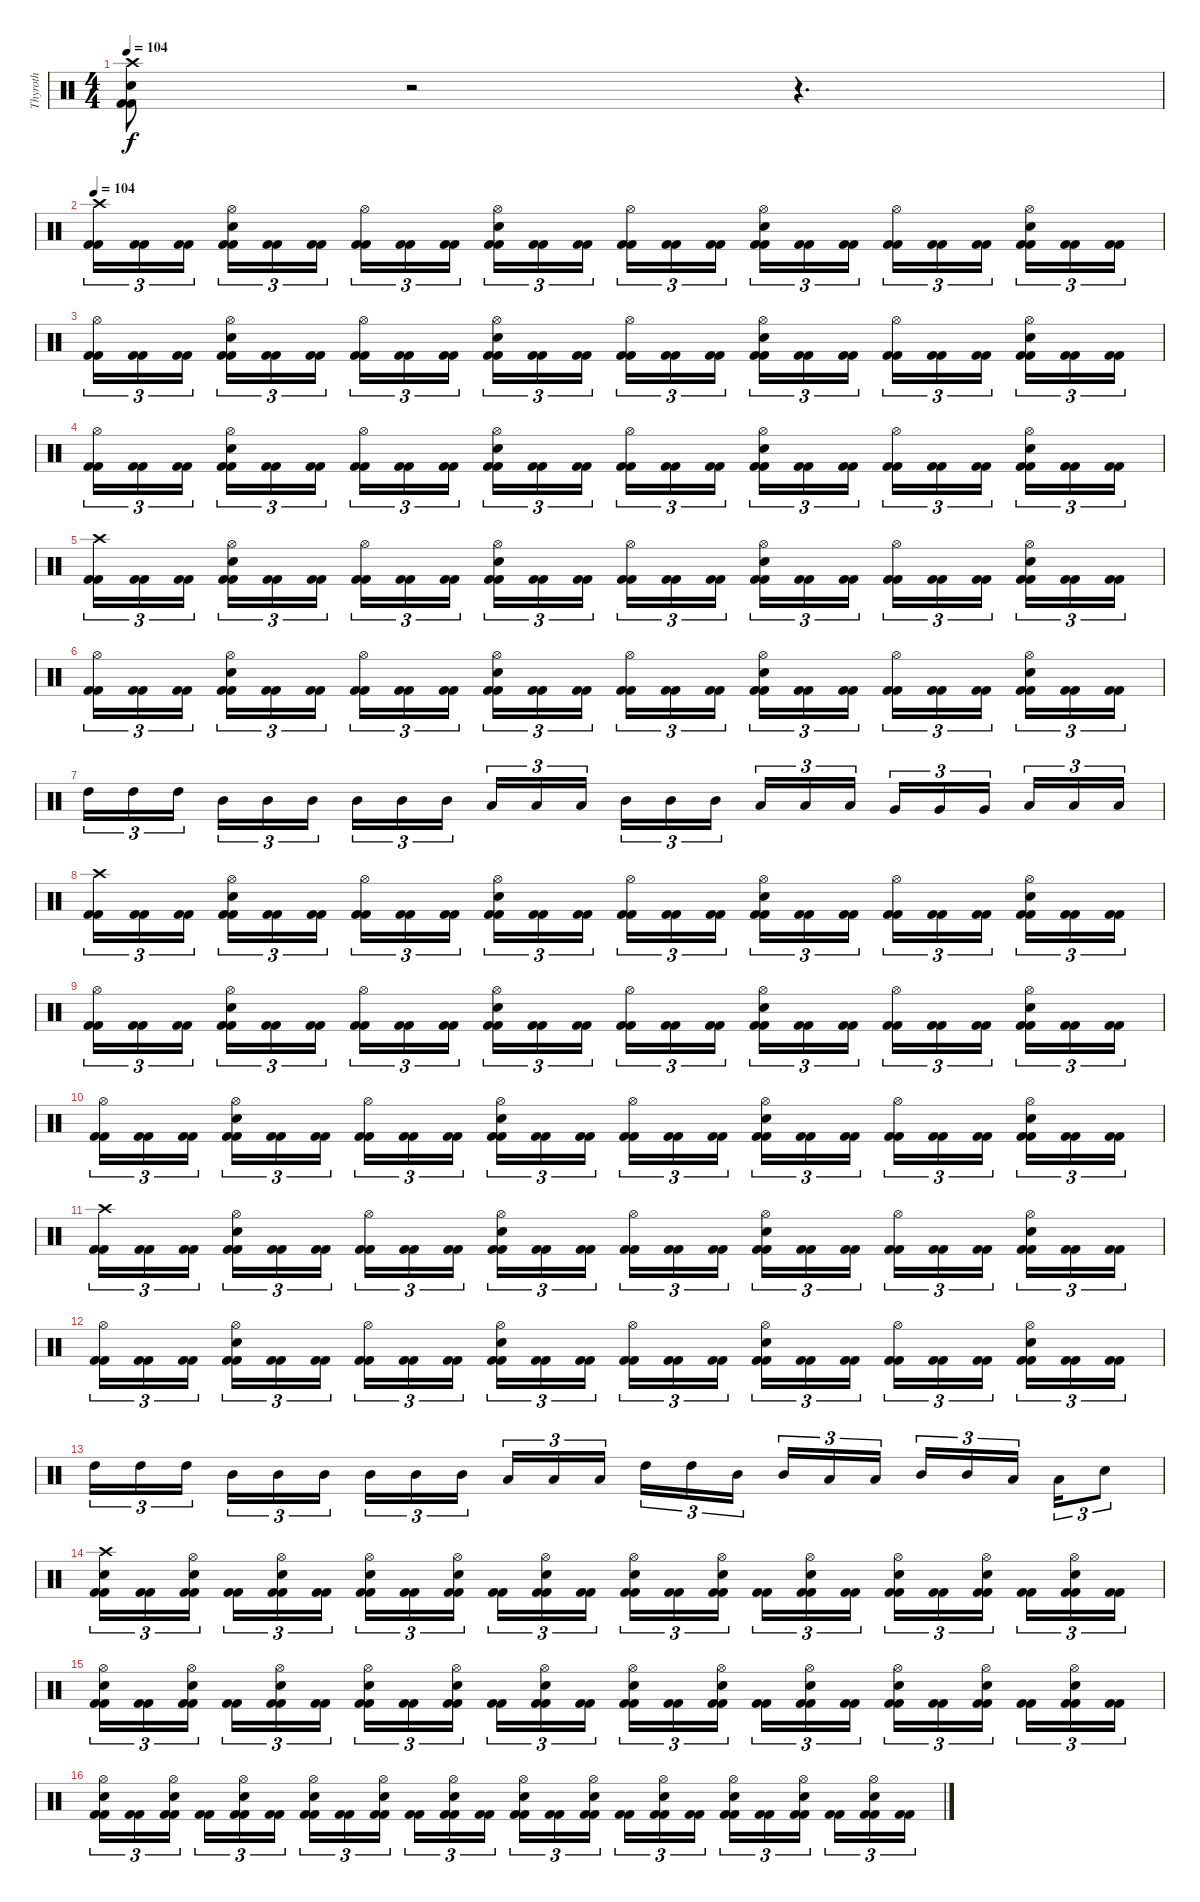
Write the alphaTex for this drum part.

\track ("Thyroth" "Thyroth") {instrument percussion}
\staff {score}
\articulation defaults
\ts (4 4)
\tempo 104
\clef neutral
\ks c
("Kick (hit) 2" "Kick (hit) 2" "Snare (hit) 2" "Crash high (hit)").8{dy f} r.2 r.4{d} |
\tempo 104
("Kick (hit) 2" "Kick (hit) 2" "Crash high (hit)").16{tu (3 2)} ("Kick (hit) 2" "Kick (hit) 2").16{tu (3 2)} ("Kick (hit) 2" "Kick (hit) 2").16{tu (3 2)} ("Kick (hit) 2" "Kick (hit) 2" "Snare (hit) 2" "Hi-Hat (open)").16{tu (3 2)} ("Kick (hit) 2" "Kick (hit) 2").16{tu (3 2)} ("Kick (hit) 2" "Kick (hit) 2").16{tu (3 2)} ("Kick (hit) 2" "Kick (hit) 2" "Hi-Hat (open)").16{tu (3 2)} ("Kick (hit) 2" "Kick (hit) 2").16{tu (3 2)} ("Kick (hit) 2" "Kick (hit) 2").16{tu (3 2)} ("Kick (hit) 2" "Kick (hit) 2" "Snare (hit) 2" "Hi-Hat (open)").16{tu (3 2)} ("Kick (hit) 2" "Kick (hit) 2").16{tu (3 2)} ("Kick (hit) 2" "Kick (hit) 2").16{tu (3 2)} ("Kick (hit) 2" "Kick (hit) 2" "Hi-Hat (open)").16{tu (3 2)} ("Kick (hit) 2" "Kick (hit) 2").16{tu (3 2)} ("Kick (hit) 2" "Kick (hit) 2").16{tu (3 2)} ("Kick (hit) 2" "Kick (hit) 2" "Snare (hit) 2" "Hi-Hat (open)").16{tu (3 2)} ("Kick (hit) 2" "Kick (hit) 2").16{tu (3 2)} ("Kick (hit) 2" "Kick (hit) 2").16{tu (3 2)} ("Kick (hit) 2" "Kick (hit) 2" "Hi-Hat (open)").16{tu (3 2)} ("Kick (hit) 2" "Kick (hit) 2").16{tu (3 2)} ("Kick (hit) 2" "Kick (hit) 2").16{tu (3 2)} ("Kick (hit) 2" "Kick (hit) 2" "Snare (hit) 2" "Hi-Hat (open)").16{tu (3 2)} ("Kick (hit) 2" "Kick (hit) 2").16{tu (3 2)} ("Kick (hit) 2" "Kick (hit) 2").16{tu (3 2)} |
("Kick (hit) 2" "Kick (hit) 2" "Hi-Hat (open)").16{tu (3 2)} ("Kick (hit) 2" "Kick (hit) 2").16{tu (3 2)} ("Kick (hit) 2" "Kick (hit) 2").16{tu (3 2)} ("Kick (hit) 2" "Kick (hit) 2" "Snare (hit) 2" "Hi-Hat (open)").16{tu (3 2)} ("Kick (hit) 2" "Kick (hit) 2").16{tu (3 2)} ("Kick (hit) 2" "Kick (hit) 2").16{tu (3 2)} ("Kick (hit) 2" "Kick (hit) 2" "Hi-Hat (open)").16{tu (3 2)} ("Kick (hit) 2" "Kick (hit) 2").16{tu (3 2)} ("Kick (hit) 2" "Kick (hit) 2").16{tu (3 2)} ("Kick (hit) 2" "Kick (hit) 2" "Snare (hit) 2" "Hi-Hat (open)").16{tu (3 2)} ("Kick (hit) 2" "Kick (hit) 2").16{tu (3 2)} ("Kick (hit) 2" "Kick (hit) 2").16{tu (3 2)} ("Kick (hit) 2" "Kick (hit) 2" "Hi-Hat (open)").16{tu (3 2)} ("Kick (hit) 2" "Kick (hit) 2").16{tu (3 2)} ("Kick (hit) 2" "Kick (hit) 2").16{tu (3 2)} ("Kick (hit) 2" "Kick (hit) 2" "Snare (hit) 2" "Hi-Hat (open)").16{tu (3 2)} ("Kick (hit) 2" "Kick (hit) 2").16{tu (3 2)} ("Kick (hit) 2" "Kick (hit) 2").16{tu (3 2)} ("Kick (hit) 2" "Kick (hit) 2" "Hi-Hat (open)").16{tu (3 2)} ("Kick (hit) 2" "Kick (hit) 2").16{tu (3 2)} ("Kick (hit) 2" "Kick (hit) 2").16{tu (3 2)} ("Kick (hit) 2" "Kick (hit) 2" "Snare (hit) 2" "Hi-Hat (open)").16{tu (3 2)} ("Kick (hit) 2" "Kick (hit) 2").16{tu (3 2)} ("Kick (hit) 2" "Kick (hit) 2").16{tu (3 2)} |
("Kick (hit) 2" "Kick (hit) 2" "Hi-Hat (open)").16{tu (3 2)} ("Kick (hit) 2" "Kick (hit) 2").16{tu (3 2)} ("Kick (hit) 2" "Kick (hit) 2").16{tu (3 2)} ("Kick (hit) 2" "Kick (hit) 2" "Snare (hit) 2" "Hi-Hat (open)").16{tu (3 2)} ("Kick (hit) 2" "Kick (hit) 2").16{tu (3 2)} ("Kick (hit) 2" "Kick (hit) 2").16{tu (3 2)} ("Kick (hit) 2" "Kick (hit) 2" "Hi-Hat (open)").16{tu (3 2)} ("Kick (hit) 2" "Kick (hit) 2").16{tu (3 2)} ("Kick (hit) 2" "Kick (hit) 2").16{tu (3 2)} ("Kick (hit) 2" "Kick (hit) 2" "Snare (hit) 2" "Hi-Hat (open)").16{tu (3 2)} ("Kick (hit) 2" "Kick (hit) 2").16{tu (3 2)} ("Kick (hit) 2" "Kick (hit) 2").16{tu (3 2)} ("Kick (hit) 2" "Kick (hit) 2" "Hi-Hat (open)").16{tu (3 2)} ("Kick (hit) 2" "Kick (hit) 2").16{tu (3 2)} ("Kick (hit) 2" "Kick (hit) 2").16{tu (3 2)} ("Kick (hit) 2" "Kick (hit) 2" "Snare (hit) 2" "Hi-Hat (open)").16{tu (3 2)} ("Kick (hit) 2" "Kick (hit) 2").16{tu (3 2)} ("Kick (hit) 2" "Kick (hit) 2").16{tu (3 2)} ("Kick (hit) 2" "Kick (hit) 2" "Hi-Hat (open)").16{tu (3 2)} ("Kick (hit) 2" "Kick (hit) 2").16{tu (3 2)} ("Kick (hit) 2" "Kick (hit) 2").16{tu (3 2)} ("Kick (hit) 2" "Kick (hit) 2" "Snare (hit) 2" "Hi-Hat (open)").16{tu (3 2)} ("Kick (hit) 2" "Kick (hit) 2").16{tu (3 2)} ("Kick (hit) 2" "Kick (hit) 2").16{tu (3 2)} |
("Kick (hit) 2" "Kick (hit) 2" "Crash high (hit)").16{tu (3 2)} ("Kick (hit) 2" "Kick (hit) 2").16{tu (3 2)} ("Kick (hit) 2" "Kick (hit) 2").16{tu (3 2)} ("Kick (hit) 2" "Kick (hit) 2" "Snare (hit) 2" "Hi-Hat (open)").16{tu (3 2)} ("Kick (hit) 2" "Kick (hit) 2").16{tu (3 2)} ("Kick (hit) 2" "Kick (hit) 2").16{tu (3 2)} ("Kick (hit) 2" "Kick (hit) 2" "Hi-Hat (open)").16{tu (3 2)} ("Kick (hit) 2" "Kick (hit) 2").16{tu (3 2)} ("Kick (hit) 2" "Kick (hit) 2").16{tu (3 2)} ("Kick (hit) 2" "Kick (hit) 2" "Snare (hit) 2" "Hi-Hat (open)").16{tu (3 2)} ("Kick (hit) 2" "Kick (hit) 2").16{tu (3 2)} ("Kick (hit) 2" "Kick (hit) 2").16{tu (3 2)} ("Kick (hit) 2" "Kick (hit) 2" "Hi-Hat (open)").16{tu (3 2)} ("Kick (hit) 2" "Kick (hit) 2").16{tu (3 2)} ("Kick (hit) 2" "Kick (hit) 2").16{tu (3 2)} ("Kick (hit) 2" "Kick (hit) 2" "Snare (hit) 2" "Hi-Hat (open)").16{tu (3 2)} ("Kick (hit) 2" "Kick (hit) 2").16{tu (3 2)} ("Kick (hit) 2" "Kick (hit) 2").16{tu (3 2)} ("Kick (hit) 2" "Kick (hit) 2" "Hi-Hat (open)").16{tu (3 2)} ("Kick (hit) 2" "Kick (hit) 2").16{tu (3 2)} ("Kick (hit) 2" "Kick (hit) 2").16{tu (3 2)} ("Kick (hit) 2" "Kick (hit) 2" "Snare (hit) 2" "Hi-Hat (open)").16{tu (3 2)} ("Kick (hit) 2" "Kick (hit) 2").16{tu (3 2)} ("Kick (hit) 2" "Kick (hit) 2").16{tu (3 2)} |
("Kick (hit) 2" "Kick (hit) 2" "Hi-Hat (open)").16{tu (3 2)} ("Kick (hit) 2" "Kick (hit) 2").16{tu (3 2)} ("Kick (hit) 2" "Kick (hit) 2").16{tu (3 2)} ("Kick (hit) 2" "Kick (hit) 2" "Snare (hit) 2" "Hi-Hat (open)").16{tu (3 2)} ("Kick (hit) 2" "Kick (hit) 2").16{tu (3 2)} ("Kick (hit) 2" "Kick (hit) 2").16{tu (3 2)} ("Kick (hit) 2" "Kick (hit) 2" "Hi-Hat (open)").16{tu (3 2)} ("Kick (hit) 2" "Kick (hit) 2").16{tu (3 2)} ("Kick (hit) 2" "Kick (hit) 2").16{tu (3 2)} ("Kick (hit) 2" "Kick (hit) 2" "Snare (hit) 2" "Hi-Hat (open)").16{tu (3 2)} ("Kick (hit) 2" "Kick (hit) 2").16{tu (3 2)} ("Kick (hit) 2" "Kick (hit) 2").16{tu (3 2)} ("Kick (hit) 2" "Kick (hit) 2" "Hi-Hat (open)").16{tu (3 2)} ("Kick (hit) 2" "Kick (hit) 2").16{tu (3 2)} ("Kick (hit) 2" "Kick (hit) 2").16{tu (3 2)} ("Kick (hit) 2" "Kick (hit) 2" "Snare (hit) 2" "Hi-Hat (open)").16{tu (3 2)} ("Kick (hit) 2" "Kick (hit) 2").16{tu (3 2)} ("Kick (hit) 2" "Kick (hit) 2").16{tu (3 2)} ("Kick (hit) 2" "Kick (hit) 2" "Hi-Hat (open)").16{tu (3 2)} ("Kick (hit) 2" "Kick (hit) 2").16{tu (3 2)} ("Kick (hit) 2" "Kick (hit) 2").16{tu (3 2)} ("Kick (hit) 2" "Kick (hit) 2" "Snare (hit) 2" "Hi-Hat (open)").16{tu (3 2)} ("Kick (hit) 2" "Kick (hit) 2").16{tu (3 2)} ("Kick (hit) 2" "Kick (hit) 2").16{tu (3 2)} |
"High Tom (hit)".16{tu (3 2)} "High Tom (hit)".16{tu (3 2)} "High Tom (hit)".16{tu (3 2)} "Mid Tom (hit)".16{tu (3 2)} "Mid Tom (hit)".16{tu (3 2)} "Mid Tom (hit)".16{tu (3 2)} "Mid Tom (hit)".16{tu (3 2)} "Mid Tom (hit)".16{tu (3 2)} "Mid Tom (hit)".16{tu (3 2)} "Low Tom (hit)".16{tu (3 2)} "Low Tom (hit)".16{tu (3 2)} "Low Tom (hit)".16{tu (3 2)} "Mid Tom (hit)".16{tu (3 2)} "Mid Tom (hit)".16{tu (3 2)} "Mid Tom (hit)".16{tu (3 2)} "Low Tom (hit)".16{tu (3 2)} "Low Tom (hit)".16{tu (3 2)} "Low Tom (hit)".16{tu (3 2)} "Very Low Tom (hit)".16{tu (3 2)} "Very Low Tom (hit)".16{tu (3 2)} "Very Low Tom (hit)".16{tu (3 2)} "Low Tom (hit)".16{tu (3 2)} "Low Tom (hit)".16{tu (3 2)} "Low Tom (hit)".16{tu (3 2)} |
("Kick (hit) 2" "Kick (hit) 2" "Crash high (hit)").16{tu (3 2)} ("Kick (hit) 2" "Kick (hit) 2").16{tu (3 2)} ("Kick (hit) 2" "Kick (hit) 2").16{tu (3 2)} ("Kick (hit) 2" "Kick (hit) 2" "Snare (hit) 2" "Hi-Hat (open)").16{tu (3 2)} ("Kick (hit) 2" "Kick (hit) 2").16{tu (3 2)} ("Kick (hit) 2" "Kick (hit) 2").16{tu (3 2)} ("Kick (hit) 2" "Kick (hit) 2" "Hi-Hat (open)").16{tu (3 2)} ("Kick (hit) 2" "Kick (hit) 2").16{tu (3 2)} ("Kick (hit) 2" "Kick (hit) 2").16{tu (3 2)} ("Kick (hit) 2" "Kick (hit) 2" "Snare (hit) 2" "Hi-Hat (open)").16{tu (3 2)} ("Kick (hit) 2" "Kick (hit) 2").16{tu (3 2)} ("Kick (hit) 2" "Kick (hit) 2").16{tu (3 2)} ("Kick (hit) 2" "Kick (hit) 2" "Hi-Hat (open)").16{tu (3 2)} ("Kick (hit) 2" "Kick (hit) 2").16{tu (3 2)} ("Kick (hit) 2" "Kick (hit) 2").16{tu (3 2)} ("Kick (hit) 2" "Kick (hit) 2" "Snare (hit) 2" "Hi-Hat (open)").16{tu (3 2)} ("Kick (hit) 2" "Kick (hit) 2").16{tu (3 2)} ("Kick (hit) 2" "Kick (hit) 2").16{tu (3 2)} ("Kick (hit) 2" "Kick (hit) 2" "Hi-Hat (open)").16{tu (3 2)} ("Kick (hit) 2" "Kick (hit) 2").16{tu (3 2)} ("Kick (hit) 2" "Kick (hit) 2").16{tu (3 2)} ("Kick (hit) 2" "Kick (hit) 2" "Snare (hit) 2" "Hi-Hat (open)").16{tu (3 2)} ("Kick (hit) 2" "Kick (hit) 2").16{tu (3 2)} ("Kick (hit) 2" "Kick (hit) 2").16{tu (3 2)} |
("Kick (hit) 2" "Kick (hit) 2" "Hi-Hat (open)").16{tu (3 2)} ("Kick (hit) 2" "Kick (hit) 2").16{tu (3 2)} ("Kick (hit) 2" "Kick (hit) 2").16{tu (3 2)} ("Kick (hit) 2" "Kick (hit) 2" "Snare (hit) 2" "Hi-Hat (open)").16{tu (3 2)} ("Kick (hit) 2" "Kick (hit) 2").16{tu (3 2)} ("Kick (hit) 2" "Kick (hit) 2").16{tu (3 2)} ("Kick (hit) 2" "Kick (hit) 2" "Hi-Hat (open)").16{tu (3 2)} ("Kick (hit) 2" "Kick (hit) 2").16{tu (3 2)} ("Kick (hit) 2" "Kick (hit) 2").16{tu (3 2)} ("Kick (hit) 2" "Kick (hit) 2" "Snare (hit) 2" "Hi-Hat (open)").16{tu (3 2)} ("Kick (hit) 2" "Kick (hit) 2").16{tu (3 2)} ("Kick (hit) 2" "Kick (hit) 2").16{tu (3 2)} ("Kick (hit) 2" "Kick (hit) 2" "Hi-Hat (open)").16{tu (3 2)} ("Kick (hit) 2" "Kick (hit) 2").16{tu (3 2)} ("Kick (hit) 2" "Kick (hit) 2").16{tu (3 2)} ("Kick (hit) 2" "Kick (hit) 2" "Snare (hit) 2" "Hi-Hat (open)").16{tu (3 2)} ("Kick (hit) 2" "Kick (hit) 2").16{tu (3 2)} ("Kick (hit) 2" "Kick (hit) 2").16{tu (3 2)} ("Kick (hit) 2" "Kick (hit) 2" "Hi-Hat (open)").16{tu (3 2)} ("Kick (hit) 2" "Kick (hit) 2").16{tu (3 2)} ("Kick (hit) 2" "Kick (hit) 2").16{tu (3 2)} ("Kick (hit) 2" "Kick (hit) 2" "Snare (hit) 2" "Hi-Hat (open)").16{tu (3 2)} ("Kick (hit) 2" "Kick (hit) 2").16{tu (3 2)} ("Kick (hit) 2" "Kick (hit) 2").16{tu (3 2)} |
("Kick (hit) 2" "Kick (hit) 2" "Hi-Hat (open)").16{tu (3 2)} ("Kick (hit) 2" "Kick (hit) 2").16{tu (3 2)} ("Kick (hit) 2" "Kick (hit) 2").16{tu (3 2)} ("Kick (hit) 2" "Kick (hit) 2" "Snare (hit) 2" "Hi-Hat (open)").16{tu (3 2)} ("Kick (hit) 2" "Kick (hit) 2").16{tu (3 2)} ("Kick (hit) 2" "Kick (hit) 2").16{tu (3 2)} ("Kick (hit) 2" "Kick (hit) 2" "Hi-Hat (open)").16{tu (3 2)} ("Kick (hit) 2" "Kick (hit) 2").16{tu (3 2)} ("Kick (hit) 2" "Kick (hit) 2").16{tu (3 2)} ("Kick (hit) 2" "Kick (hit) 2" "Snare (hit) 2" "Hi-Hat (open)").16{tu (3 2)} ("Kick (hit) 2" "Kick (hit) 2").16{tu (3 2)} ("Kick (hit) 2" "Kick (hit) 2").16{tu (3 2)} ("Kick (hit) 2" "Kick (hit) 2" "Hi-Hat (open)").16{tu (3 2)} ("Kick (hit) 2" "Kick (hit) 2").16{tu (3 2)} ("Kick (hit) 2" "Kick (hit) 2").16{tu (3 2)} ("Kick (hit) 2" "Kick (hit) 2" "Snare (hit) 2" "Hi-Hat (open)").16{tu (3 2)} ("Kick (hit) 2" "Kick (hit) 2").16{tu (3 2)} ("Kick (hit) 2" "Kick (hit) 2").16{tu (3 2)} ("Kick (hit) 2" "Kick (hit) 2" "Hi-Hat (open)").16{tu (3 2)} ("Kick (hit) 2" "Kick (hit) 2").16{tu (3 2)} ("Kick (hit) 2" "Kick (hit) 2").16{tu (3 2)} ("Kick (hit) 2" "Kick (hit) 2" "Snare (hit) 2" "Hi-Hat (open)").16{tu (3 2)} ("Kick (hit) 2" "Kick (hit) 2").16{tu (3 2)} ("Kick (hit) 2" "Kick (hit) 2").16{tu (3 2)} |
("Kick (hit) 2" "Kick (hit) 2" "Crash high (hit)").16{tu (3 2)} ("Kick (hit) 2" "Kick (hit) 2").16{tu (3 2)} ("Kick (hit) 2" "Kick (hit) 2").16{tu (3 2)} ("Kick (hit) 2" "Kick (hit) 2" "Snare (hit) 2" "Hi-Hat (open)").16{tu (3 2)} ("Kick (hit) 2" "Kick (hit) 2").16{tu (3 2)} ("Kick (hit) 2" "Kick (hit) 2").16{tu (3 2)} ("Kick (hit) 2" "Kick (hit) 2" "Hi-Hat (open)").16{tu (3 2)} ("Kick (hit) 2" "Kick (hit) 2").16{tu (3 2)} ("Kick (hit) 2" "Kick (hit) 2").16{tu (3 2)} ("Kick (hit) 2" "Kick (hit) 2" "Snare (hit) 2" "Hi-Hat (open)").16{tu (3 2)} ("Kick (hit) 2" "Kick (hit) 2").16{tu (3 2)} ("Kick (hit) 2" "Kick (hit) 2").16{tu (3 2)} ("Kick (hit) 2" "Kick (hit) 2" "Hi-Hat (open)").16{tu (3 2)} ("Kick (hit) 2" "Kick (hit) 2").16{tu (3 2)} ("Kick (hit) 2" "Kick (hit) 2").16{tu (3 2)} ("Kick (hit) 2" "Kick (hit) 2" "Snare (hit) 2" "Hi-Hat (open)").16{tu (3 2)} ("Kick (hit) 2" "Kick (hit) 2").16{tu (3 2)} ("Kick (hit) 2" "Kick (hit) 2").16{tu (3 2)} ("Kick (hit) 2" "Kick (hit) 2" "Hi-Hat (open)").16{tu (3 2)} ("Kick (hit) 2" "Kick (hit) 2").16{tu (3 2)} ("Kick (hit) 2" "Kick (hit) 2").16{tu (3 2)} ("Kick (hit) 2" "Kick (hit) 2" "Snare (hit) 2" "Hi-Hat (open)").16{tu (3 2)} ("Kick (hit) 2" "Kick (hit) 2").16{tu (3 2)} ("Kick (hit) 2" "Kick (hit) 2").16{tu (3 2)} |
("Kick (hit) 2" "Kick (hit) 2" "Hi-Hat (open)").16{tu (3 2)} ("Kick (hit) 2" "Kick (hit) 2").16{tu (3 2)} ("Kick (hit) 2" "Kick (hit) 2").16{tu (3 2)} ("Kick (hit) 2" "Kick (hit) 2" "Snare (hit) 2" "Hi-Hat (open)").16{tu (3 2)} ("Kick (hit) 2" "Kick (hit) 2").16{tu (3 2)} ("Kick (hit) 2" "Kick (hit) 2").16{tu (3 2)} ("Kick (hit) 2" "Kick (hit) 2" "Hi-Hat (open)").16{tu (3 2)} ("Kick (hit) 2" "Kick (hit) 2").16{tu (3 2)} ("Kick (hit) 2" "Kick (hit) 2").16{tu (3 2)} ("Kick (hit) 2" "Kick (hit) 2" "Snare (hit) 2" "Hi-Hat (open)").16{tu (3 2)} ("Kick (hit) 2" "Kick (hit) 2").16{tu (3 2)} ("Kick (hit) 2" "Kick (hit) 2").16{tu (3 2)} ("Kick (hit) 2" "Kick (hit) 2" "Hi-Hat (open)").16{tu (3 2)} ("Kick (hit) 2" "Kick (hit) 2").16{tu (3 2)} ("Kick (hit) 2" "Kick (hit) 2").16{tu (3 2)} ("Kick (hit) 2" "Kick (hit) 2" "Snare (hit) 2" "Hi-Hat (open)").16{tu (3 2)} ("Kick (hit) 2" "Kick (hit) 2").16{tu (3 2)} ("Kick (hit) 2" "Kick (hit) 2").16{tu (3 2)} ("Kick (hit) 2" "Kick (hit) 2" "Hi-Hat (open)").16{tu (3 2)} ("Kick (hit) 2" "Kick (hit) 2").16{tu (3 2)} ("Kick (hit) 2" "Kick (hit) 2").16{tu (3 2)} ("Kick (hit) 2" "Kick (hit) 2" "Snare (hit) 2" "Hi-Hat (open)").16{tu (3 2)} ("Kick (hit) 2" "Kick (hit) 2").16{tu (3 2)} ("Kick (hit) 2" "Kick (hit) 2").16{tu (3 2)} |
"High Tom (hit)".16{tu (3 2)} "High Tom (hit)".16{tu (3 2)} "High Tom (hit)".16{tu (3 2)} "Mid Tom (hit)".16{tu (3 2)} "Mid Tom (hit)".16{tu (3 2)} "Mid Tom (hit)".16{tu (3 2)} "Mid Tom (hit)".16{tu (3 2)} "Mid Tom (hit)".16{tu (3 2)} "Mid Tom (hit)".16{tu (3 2)} "Low Tom (hit)".16{tu (3 2)} "Low Tom (hit)".16{tu (3 2)} "Low Tom (hit)".16{tu (3 2)} "High Tom (hit)".16{tu (3 2)} "High Tom (hit)".16{tu (3 2)} "Mid Tom (hit)".16{tu (3 2)} "Mid Tom (hit)".16{tu (3 2)} "Low Tom (hit)".16{tu (3 2)} "Low Tom (hit)".16{tu (3 2)} "Mid Tom (hit)".16{tu (3 2)} "Mid Tom (hit)".16{tu (3 2)} "Low Tom (hit)".16{tu (3 2)} "Low Tom (hit)".16{tu (3 2)} "Snare (hit) 2".8{tu (3 2)} |
("Kick (hit) 2" "Kick (hit) 2" "Snare (hit) 2" "Crash high (hit)").16{tu (3 2)} ("Kick (hit) 2" "Kick (hit) 2").16{tu (3 2)} ("Kick (hit) 2" "Kick (hit) 2" "Snare (hit) 2" "Hi-Hat (open)").16{tu (3 2)} ("Kick (hit) 2" "Kick (hit) 2").16{tu (3 2)} ("Kick (hit) 2" "Kick (hit) 2" "Snare (hit) 2" "Hi-Hat (open)").16{tu (3 2)} ("Kick (hit) 2" "Kick (hit) 2").16{tu (3 2)} ("Kick (hit) 2" "Kick (hit) 2" "Snare (hit) 2" "Hi-Hat (open)").16{tu (3 2)} ("Kick (hit) 2" "Kick (hit) 2").16{tu (3 2)} ("Kick (hit) 2" "Kick (hit) 2" "Snare (hit) 2" "Hi-Hat (open)").16{tu (3 2)} ("Kick (hit) 2" "Kick (hit) 2").16{tu (3 2)} ("Kick (hit) 2" "Kick (hit) 2" "Snare (hit) 2" "Hi-Hat (open)").16{tu (3 2)} ("Kick (hit) 2" "Kick (hit) 2").16{tu (3 2)} ("Kick (hit) 2" "Kick (hit) 2" "Snare (hit) 2" "Hi-Hat (open)").16{tu (3 2)} ("Kick (hit) 2" "Kick (hit) 2").16{tu (3 2)} ("Kick (hit) 2" "Kick (hit) 2" "Snare (hit) 2" "Hi-Hat (open)").16{tu (3 2)} ("Kick (hit) 2" "Kick (hit) 2").16{tu (3 2)} ("Kick (hit) 2" "Kick (hit) 2" "Snare (hit) 2" "Hi-Hat (open)").16{tu (3 2)} ("Kick (hit) 2" "Kick (hit) 2").16{tu (3 2)} ("Kick (hit) 2" "Kick (hit) 2" "Snare (hit) 2" "Hi-Hat (open)").16{tu (3 2)} ("Kick (hit) 2" "Kick (hit) 2").16{tu (3 2)} ("Kick (hit) 2" "Kick (hit) 2" "Snare (hit) 2" "Hi-Hat (open)").16{tu (3 2)} ("Kick (hit) 2" "Kick (hit) 2").16{tu (3 2)} ("Kick (hit) 2" "Kick (hit) 2" "Snare (hit) 2" "Hi-Hat (open)").16{tu (3 2)} ("Kick (hit) 2" "Kick (hit) 2").16{tu (3 2)} |
("Kick (hit) 2" "Kick (hit) 2" "Snare (hit) 2" "Hi-Hat (open)").16{tu (3 2)} ("Kick (hit) 2" "Kick (hit) 2").16{tu (3 2)} ("Kick (hit) 2" "Kick (hit) 2" "Snare (hit) 2" "Hi-Hat (open)").16{tu (3 2)} ("Kick (hit) 2" "Kick (hit) 2").16{tu (3 2)} ("Kick (hit) 2" "Kick (hit) 2" "Snare (hit) 2" "Hi-Hat (open)").16{tu (3 2)} ("Kick (hit) 2" "Kick (hit) 2").16{tu (3 2)} ("Kick (hit) 2" "Kick (hit) 2" "Snare (hit) 2" "Hi-Hat (open)").16{tu (3 2)} ("Kick (hit) 2" "Kick (hit) 2").16{tu (3 2)} ("Kick (hit) 2" "Kick (hit) 2" "Snare (hit) 2" "Hi-Hat (open)").16{tu (3 2)} ("Kick (hit) 2" "Kick (hit) 2").16{tu (3 2)} ("Kick (hit) 2" "Kick (hit) 2" "Snare (hit) 2" "Hi-Hat (open)").16{tu (3 2)} ("Kick (hit) 2" "Kick (hit) 2").16{tu (3 2)} ("Kick (hit) 2" "Kick (hit) 2" "Snare (hit) 2" "Hi-Hat (open)").16{tu (3 2)} ("Kick (hit) 2" "Kick (hit) 2").16{tu (3 2)} ("Kick (hit) 2" "Kick (hit) 2" "Snare (hit) 2" "Hi-Hat (open)").16{tu (3 2)} ("Kick (hit) 2" "Kick (hit) 2").16{tu (3 2)} ("Kick (hit) 2" "Kick (hit) 2" "Snare (hit) 2" "Hi-Hat (open)").16{tu (3 2)} ("Kick (hit) 2" "Kick (hit) 2").16{tu (3 2)} ("Kick (hit) 2" "Kick (hit) 2" "Snare (hit) 2" "Hi-Hat (open)").16{tu (3 2)} ("Kick (hit) 2" "Kick (hit) 2").16{tu (3 2)} ("Kick (hit) 2" "Kick (hit) 2" "Snare (hit) 2" "Hi-Hat (open)").16{tu (3 2)} ("Kick (hit) 2" "Kick (hit) 2").16{tu (3 2)} ("Kick (hit) 2" "Kick (hit) 2" "Snare (hit) 2" "Hi-Hat (open)").16{tu (3 2)} ("Kick (hit) 2" "Kick (hit) 2").16{tu (3 2)} |
("Kick (hit) 2" "Kick (hit) 2" "Snare (hit) 2" "Hi-Hat (open)").16{tu (3 2)} ("Kick (hit) 2" "Kick (hit) 2").16{tu (3 2)} ("Kick (hit) 2" "Kick (hit) 2" "Snare (hit) 2" "Hi-Hat (open)").16{tu (3 2)} ("Kick (hit) 2" "Kick (hit) 2").16{tu (3 2)} ("Kick (hit) 2" "Kick (hit) 2" "Snare (hit) 2" "Hi-Hat (open)").16{tu (3 2)} ("Kick (hit) 2" "Kick (hit) 2").16{tu (3 2)} ("Kick (hit) 2" "Kick (hit) 2" "Snare (hit) 2" "Hi-Hat (open)").16{tu (3 2)} ("Kick (hit) 2" "Kick (hit) 2").16{tu (3 2)} ("Kick (hit) 2" "Kick (hit) 2" "Snare (hit) 2" "Hi-Hat (open)").16{tu (3 2)} ("Kick (hit) 2" "Kick (hit) 2").16{tu (3 2)} ("Kick (hit) 2" "Kick (hit) 2" "Snare (hit) 2" "Hi-Hat (open)").16{tu (3 2)} ("Kick (hit) 2" "Kick (hit) 2").16{tu (3 2)} ("Kick (hit) 2" "Kick (hit) 2" "Snare (hit) 2" "Hi-Hat (open)").16{tu (3 2)} ("Kick (hit) 2" "Kick (hit) 2").16{tu (3 2)} ("Kick (hit) 2" "Kick (hit) 2" "Snare (hit) 2" "Hi-Hat (open)").16{tu (3 2)} ("Kick (hit) 2" "Kick (hit) 2").16{tu (3 2)} ("Kick (hit) 2" "Kick (hit) 2" "Snare (hit) 2" "Hi-Hat (open)").16{tu (3 2)} ("Kick (hit) 2" "Kick (hit) 2").16{tu (3 2)} ("Kick (hit) 2" "Kick (hit) 2" "Snare (hit) 2" "Hi-Hat (open)").16{tu (3 2)} ("Kick (hit) 2" "Kick (hit) 2").16{tu (3 2)} ("Kick (hit) 2" "Kick (hit) 2" "Snare (hit) 2" "Hi-Hat (open)").16{tu (3 2)} ("Kick (hit) 2" "Kick (hit) 2").16{tu (3 2)} ("Kick (hit) 2" "Kick (hit) 2" "Snare (hit) 2" "Hi-Hat (open)").16{tu (3 2)} ("Kick (hit) 2" "Kick (hit) 2").16{tu (3 2)}
